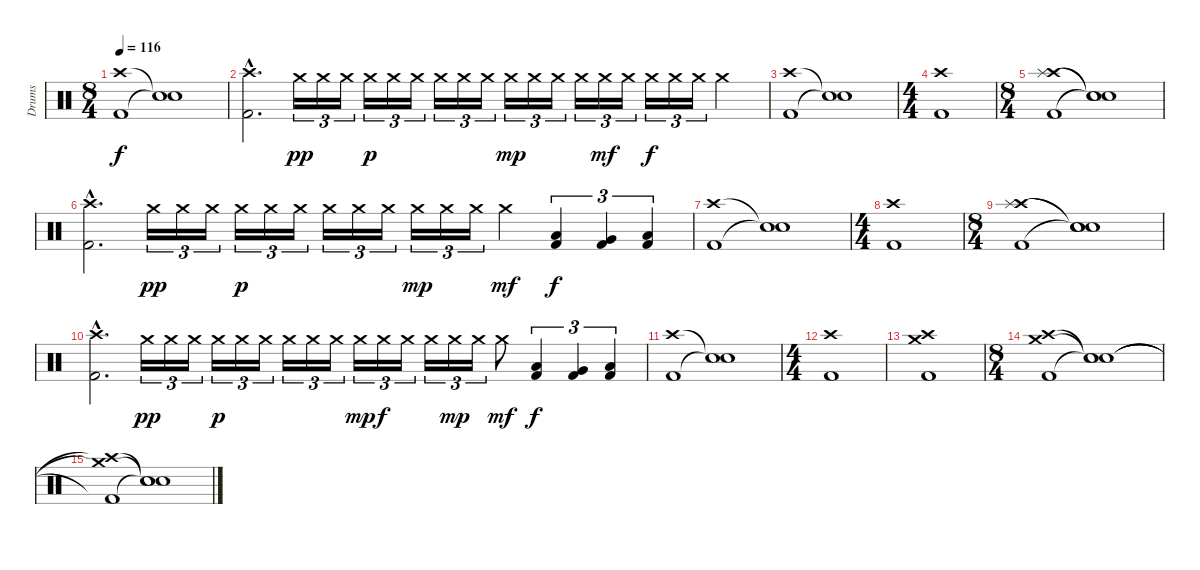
\track ("Drums" "Drums") {instrument percussion}
\staff {score}
\articulation defaults
\ts (8 4)
\tempo 116
\clef neutral
\ks c
("Crash high (hit)" "Kick (hit) 2").1{dy f} ("Snare (hit)"{t} "Snare (hit)"{t}).1 |
("Crash high (hit)"{hac} "Kick (hit) 2"{hac}).2{d} "Crash medium (hit)".16{tu (3 2) dy pp} "Crash medium (hit)".16{tu (3 2)} "Crash medium (hit)".16{tu (3 2)} "Crash medium (hit)".16{tu (3 2) dy p} "Crash medium (hit)".16{tu (3 2)} "Crash medium (hit)".16{tu (3 2)} "Crash medium (hit)".16{tu (3 2)} "Crash medium (hit)".16{tu (3 2)} "Crash medium (hit)".16{tu (3 2)} "Crash medium (hit)".16{tu (3 2) dy mp} "Crash medium (hit)".16{tu (3 2)} "Crash medium (hit)".16{tu (3 2)} "Crash medium (hit)".16{tu (3 2)} "Crash medium (hit)".16{tu (3 2) dy mf} "Crash medium (hit)".16{tu (3 2)} "Crash medium (hit)".16{tu (3 2) dy f} "Crash medium (hit)".16{tu (3 2)} "Crash medium (hit)".16{tu (3 2)} "Crash medium (hit)".2 |
("Crash high (hit)" "Kick (hit) 2").1 ("Snare (hit)"{t} "Snare (hit)"{t}).1 |
\ts (4 4)
("Crash high (hit)" "Kick (hit) 2").1 |
\ts (8 4)
("Crash high (hit)" "Splash (hit)" "Kick (hit) 2").1 ("Snare (hit)"{t} "Snare (hit)"{t} "Snare (hit)"{t}).1 |
("Crash high (hit)"{hac} "Kick (hit) 2"{hac}).2{d} "Crash medium (hit)".16{tu (3 2) dy pp} "Crash medium (hit)".16{tu (3 2)} "Crash medium (hit)".16{tu (3 2)} "Crash medium (hit)".16{tu (3 2) dy p} "Crash medium (hit)".16{tu (3 2)} "Crash medium (hit)".16{tu (3 2)} "Crash medium (hit)".16{tu (3 2)} "Crash medium (hit)".16{tu (3 2)} "Crash medium (hit)".16{tu (3 2)} "Crash medium (hit)".16{tu (3 2) dy mp} "Crash medium (hit)".16{tu (3 2)} "Crash medium (hit)".16{tu (3 2)} "Crash medium (hit)".4{dy mf} ("Low Tom (hit)" "Kick (hit) 2").4{tu (3 2) dy f} ("Very Low Tom (hit)" "Kick (hit) 2").4{tu (3 2)} ("Low Floor Tom (hit)" "Kick (hit) 2").4{tu (3 2)} |
("Crash high (hit)" "Kick (hit) 2").1 ("Snare (hit)"{t} "Snare (hit)"{t}).1 |
\ts (4 4)
("Crash high (hit)" "Kick (hit) 2").1 |
\ts (8 4)
("Crash high (hit)" "Splash (hit)" "Kick (hit) 2").1 ("Snare (hit)"{t} "Snare (hit)"{t} "Snare (hit)"{t}).1 |
("Crash high (hit)"{hac} "Kick (hit) 2"{hac}).2{d} "Crash medium (hit)".16{tu (3 2) dy pp} "Crash medium (hit)".16{tu (3 2)} "Crash medium (hit)".16{tu (3 2)} "Crash medium (hit)".16{tu (3 2) dy p} "Crash medium (hit)".16{tu (3 2)} "Crash medium (hit)".16{tu (3 2)} "Crash medium (hit)".16{tu (3 2)} "Crash medium (hit)".16{tu (3 2)} "Crash medium (hit)".16{tu (3 2)} "Crash medium (hit)".16{tu (3 2) dy mp} "Crash medium (hit)".16{tu (3 2) dy f} "Crash medium (hit)".16{tu (3 2)} "Crash medium (hit)".16{tu (3 2)} "Crash medium (hit)".16{tu (3 2) dy mp} "Crash medium (hit)".16{tu (3 2)} "Crash medium (hit)".8{dy mf} ("Low Tom (hit)" "Kick (hit) 2").4{tu (3 2) dy f} ("Very Low Tom (hit)" "Kick (hit) 2").4{tu (3 2)} ("Low Floor Tom (hit)" "Kick (hit) 2").4{tu (3 2)} |
("Crash high (hit)" "Kick (hit) 2").1 ("Snare (hit)"{t} "Snare (hit)"{t}).1 |
\ts (4 4)
("Crash high (hit)" "Kick (hit) 2").1 |
("Crash high (hit)" "Crash medium (hit)" "Kick (hit) 2").1 |
\ts (8 4)
("Crash high (hit)" "Crash medium (hit)" "Kick (hit) 2").1 ("Snare (hit)"{t} "Snare (hit)"{t} "Snare (hit)"{t}).1 |
("Crash high (hit)"{t} "Crash medium (hit)"{t} "Kick (hit) 2"{t}).1 ("Snare (hit)"{t} "Snare (hit)"{t} "Snare (hit)"{t}).1
